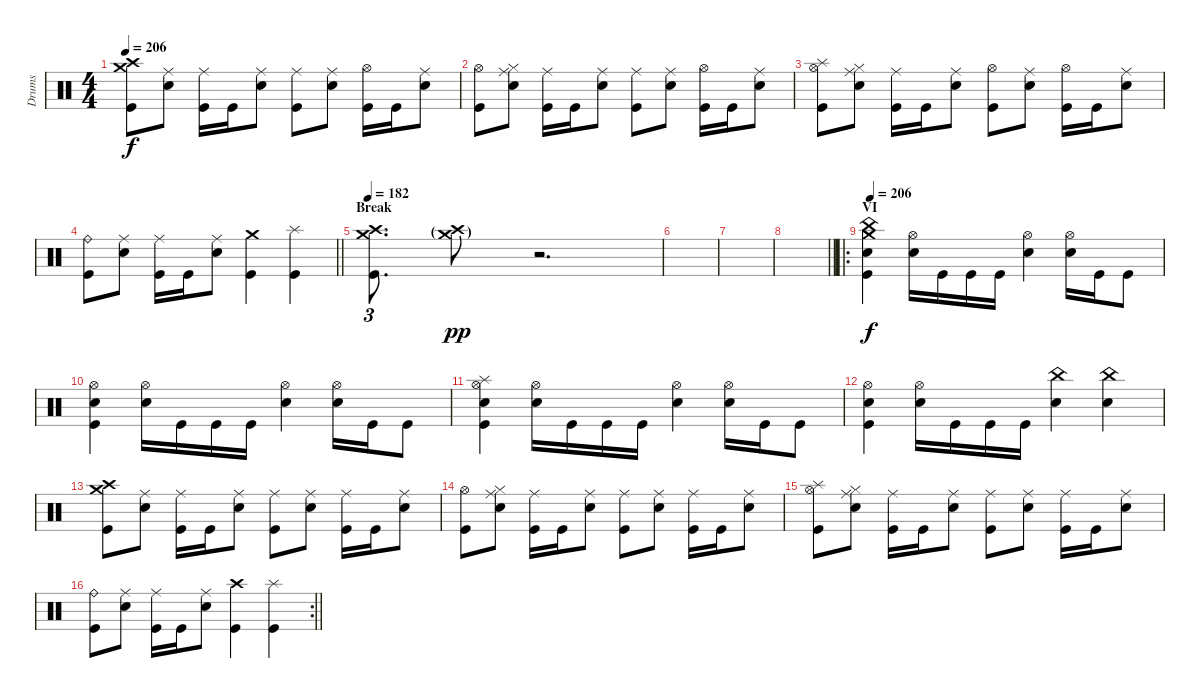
\track ("Drums" "Drums") {instrument percussion}
\staff {score}
\articulation defaults
\ts (4 4)
\tempo 206
\clef neutral
\ks c
("Crash high (hit)" "Crash medium (hit)" "Kick (hit)").8{dy f} ("Ride (middle)" "Electric Snare (hit)").8 ("Ride (middle)" "Kick (hit)").16 "Kick (hit)".16 ("Ride (middle)" "Electric Snare (hit)").8 ("Ride (middle)" "Kick (hit)").8 ("Ride (middle)" "Electric Snare (hit)").8 ("Hi-Hat (open)" "Kick (hit)").16 "Kick (hit)".16 ("Ride (middle)" "Electric Snare (hit)").8 |
("Hi-Hat (open)" "Kick (hit)").8 ("Ride (middle)" "Hi-Hat (closed)" "Electric Snare (hit)").8 ("Ride (middle)" "Kick (hit)").16 "Kick (hit)".16 ("Ride (middle)" "Electric Snare (hit)").8 ("Ride (middle)" "Kick (hit)").8 ("Ride (middle)" "Electric Snare (hit)").8 ("Hi-Hat (open)" "Kick (hit)").16 "Kick (hit)".16 ("Ride (middle)" "Electric Snare (hit)").8 |
("Splash (hit)" "Hi-Hat (open)" "Kick (hit)").8 ("Ride (middle)" "Hi-Hat (closed)" "Electric Snare (hit)").8 ("Ride (middle)" "Kick (hit)").16 "Kick (hit)".16 ("Ride (middle)" "Electric Snare (hit)").8 ("Hi-Hat (open)" "Kick (hit)").8 ("Ride (middle)" "Electric Snare (hit)").8 ("Hi-Hat (open)" "Kick (hit)").16 "Kick (hit)".16 ("Ride (middle)" "Electric Snare (hit)").8 |
\barLineRight lightlight
("Ride (bell)" "Kick (hit)").8 ("Ride (middle)" "Electric Snare (hit)").8 ("Ride (middle)" "Kick (hit)").16 "Kick (hit)".16 ("Ride (middle)" "Electric Snare (hit)").8 ("Crash medium (hit)" "Kick (hit)").4 ("Splash (hit)" "Kick (hit)").4 |
\section ("" "Break")
\tempo 182
("Crash high (hit)" "Crash medium (hit)" "Kick (hit)").8{d tu (3 2)} ("Crash high (hit)"{g} "Crash medium (hit)"{g}).8{dy pp} r.2{d} |
|
|
\barLineRight lightlight
|
\ro
\section ("" "VI")
\tempo 206
("China (hit)" "Crash medium (hit)" "Electric Snare (hit)" "Kick (hit)").4{dy f} ("Hi-Hat (open)" "Electric Snare (hit)").16 "Kick (hit)".16 "Kick (hit)".16 "Kick (hit)".16 ("Hi-Hat (open)" "Electric Snare (hit)").4 ("Hi-Hat (open)" "Electric Snare (hit)").16 "Kick (hit)".16 "Kick (hit)".8 |
("Hi-Hat (open)" "Electric Snare (hit)" "Kick (hit)").4 ("Hi-Hat (open)" "Electric Snare (hit)").16 "Kick (hit)".16 "Kick (hit)".16 "Kick (hit)".16 ("Hi-Hat (open)" "Electric Snare (hit)").4 ("Hi-Hat (open)" "Electric Snare (hit)").16 "Kick (hit)".16 "Kick (hit)".8 |
("Splash (hit)" "Hi-Hat (open)" "Electric Snare (hit)" "Kick (hit)").4 ("Hi-Hat (open)" "Electric Snare (hit)").16 "Kick (hit)".16 "Kick (hit)".16 "Kick (hit)".16 ("Hi-Hat (open)" "Electric Snare (hit)").4 ("Hi-Hat (open)" "Electric Snare (hit)").16 "Kick (hit)".16 "Kick (hit)".8 |
("Hi-Hat (open)" "Electric Snare (hit)" "Kick (hit)").4 ("Hi-Hat (open)" "Electric Snare (hit)").16 "Kick (hit)".16 "Kick (hit)".16 "Kick (hit)".16 ("China (hit)" "Electric Snare (hit)").4 ("China (hit)" "Electric Snare (hit)").4 |
("Crash high (hit)" "Crash medium (hit)" "Kick (hit)").8 ("Ride (middle)" "Electric Snare (hit)").8 ("Ride (middle)" "Kick (hit)").16 "Kick (hit)".16 ("Ride (middle)" "Electric Snare (hit)").8 ("Ride (middle)" "Kick (hit)").8 ("Ride (middle)" "Electric Snare (hit)").8 ("Ride (middle)" "Kick (hit)").16 "Kick (hit)".16 ("Ride (middle)" "Electric Snare (hit)").8 |
("Hi-Hat (open)" "Kick (hit)").8 ("Ride (middle)" "Hi-Hat (closed)" "Electric Snare (hit)").8 ("Ride (middle)" "Kick (hit)").16 "Kick (hit)".16 ("Ride (middle)" "Electric Snare (hit)").8 ("Ride (middle)" "Kick (hit)").8 ("Ride (middle)" "Electric Snare (hit)").8 ("Ride (middle)" "Kick (hit)").16 "Kick (hit)".16 ("Ride (middle)" "Electric Snare (hit)").8 |
("Splash (hit)" "Hi-Hat (open)" "Kick (hit)").8 ("Ride (middle)" "Hi-Hat (closed)" "Electric Snare (hit)").8 ("Ride (middle)" "Kick (hit)").16 "Kick (hit)".16 ("Ride (middle)" "Electric Snare (hit)").8 ("Ride (middle)" "Kick (hit)").8 ("Ride (middle)" "Electric Snare (hit)").8 ("Ride (middle)" "Kick (hit)").16 "Kick (hit)".16 ("Ride (middle)" "Electric Snare (hit)").8 |
\rc 2
\barLineRight lightlight
("Ride (bell)" "Kick (hit)").8 ("Ride (middle)" "Electric Snare (hit)").8 ("Ride (middle)" "Kick (hit)").16 "Kick (hit)".16 ("Ride (middle)" "Electric Snare (hit)").8 ("Crash high (hit)" "Kick (hit)").4 ("Splash (hit)" "Kick (hit)").4
